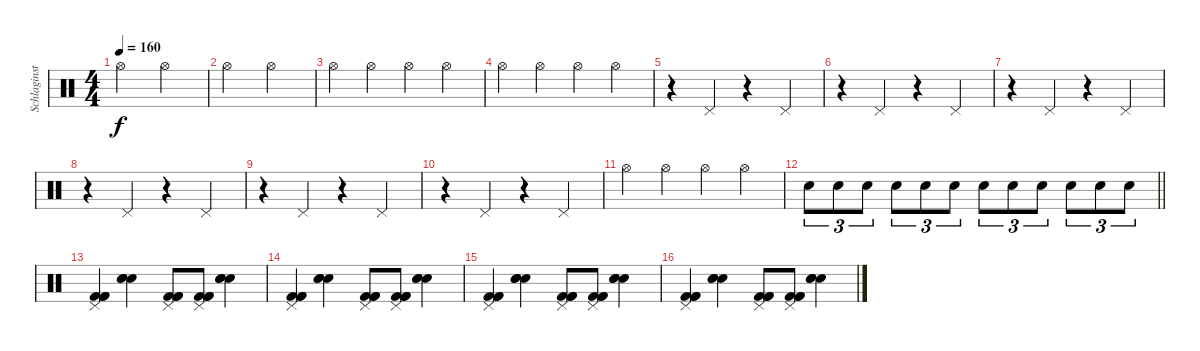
\track ("Schlaginstrumente - Auswahl" "Schlaginst") {instrument percussion}
\staff {score}
\articulation defaults
\ts (4 4)
\tempo 160
\clef neutral
\ks c "Hi-Hat (open)".2{dy f} "Hi-Hat (open)".2
|
"Hi-Hat (open)".2 "Hi-Hat (open)".2 |
"Hi-Hat (open)".4 "Hi-Hat (open)".4 "Hi-Hat (open)".4 "Hi-Hat (open)".4 |
"Hi-Hat (open)".4 "Hi-Hat (open)".4 "Hi-Hat (open)".4 "Hi-Hat (open)".4 |
r.4 "Pedal Hi-Hat (hit)".4 r.4 "Pedal Hi-Hat (hit)".4 |
r.4 "Pedal Hi-Hat (hit)".4 r.4 "Pedal Hi-Hat (hit)".4 |
r.4 "Pedal Hi-Hat (hit)".4 r.4 "Pedal Hi-Hat (hit)".4 |
r.4 "Pedal Hi-Hat (hit)".4 r.4 "Pedal Hi-Hat (hit)".4 |
r.4 "Pedal Hi-Hat (hit)".4 r.4 "Pedal Hi-Hat (hit)".4 |
r.4 "Pedal Hi-Hat (hit)".4 r.4 "Pedal Hi-Hat (hit)".4 |
"Hi-Hat (open)".4 "Hi-Hat (open)".4 "Hi-Hat (open)".4 "Hi-Hat (open)".4 |
\barLineRight lightlight "Snare (hit) 2".8{tu (3 2)} "Snare (hit) 2".8{tu (3 2)} "Snare (hit) 2".8{tu (3 2)} "Snare (hit) 2".8{tu (3 2)} "Snare (hit) 2".8{tu (3 2)} "Snare (hit) 2".8{tu (3 2)} "Snare (hit) 2".8{tu (3 2)} "Snare (hit) 2".8{tu (3 2)} "Snare (hit) 2".8{tu (3 2)} "Snare (hit) 2".8{tu (3 2)} "Snare (hit) 2".8{tu (3 2)} "Snare (hit) 2".8{tu (3 2)}
|
("Kick (hit) 2" "Kick (hit) 2" "Kick (hit) 2" "Pedal Hi-Hat (hit)").4 ("Snare (hit) 2" "Snare (hit) 2" "Snare (hit) 2").4 ("Kick (hit) 2" "Kick (hit) 2" "Kick (hit) 2" "Pedal Hi-Hat (hit)").8 ("Kick (hit) 2" "Kick (hit) 2" "Kick (hit) 2" "Pedal Hi-Hat (hit)").8 ("Snare (hit) 2" "Snare (hit) 2" "Snare (hit) 2").4 |
("Kick (hit) 2" "Kick (hit) 2" "Kick (hit) 2" "Pedal Hi-Hat (hit)").4 ("Snare (hit) 2" "Snare (hit) 2" "Snare (hit) 2").4 ("Kick (hit) 2" "Kick (hit) 2" "Kick (hit) 2" "Pedal Hi-Hat (hit)").8 ("Kick (hit) 2" "Kick (hit) 2" "Kick (hit) 2" "Pedal Hi-Hat (hit)").8 ("Snare (hit) 2" "Snare (hit) 2" "Snare (hit) 2").4 |
("Kick (hit) 2" "Kick (hit) 2" "Kick (hit) 2" "Pedal Hi-Hat (hit)").4 ("Snare (hit) 2" "Snare (hit) 2" "Snare (hit) 2").4 ("Kick (hit) 2" "Kick (hit) 2" "Kick (hit) 2" "Pedal Hi-Hat (hit)").8 ("Kick (hit) 2" "Kick (hit) 2" "Kick (hit) 2" "Pedal Hi-Hat (hit)").8 ("Snare (hit) 2" "Snare (hit) 2" "Snare (hit) 2").4 |
("Kick (hit) 2" "Kick (hit) 2" "Kick (hit) 2" "Pedal Hi-Hat (hit)").4 ("Snare (hit) 2" "Snare (hit) 2" "Snare (hit) 2").4 ("Kick (hit) 2" "Kick (hit) 2" "Kick (hit) 2" "Pedal Hi-Hat (hit)").8 ("Kick (hit) 2" "Kick (hit) 2" "Kick (hit) 2" "Pedal Hi-Hat (hit)").8 ("Snare (hit) 2" "Snare (hit) 2" "Snare (hit) 2").4
